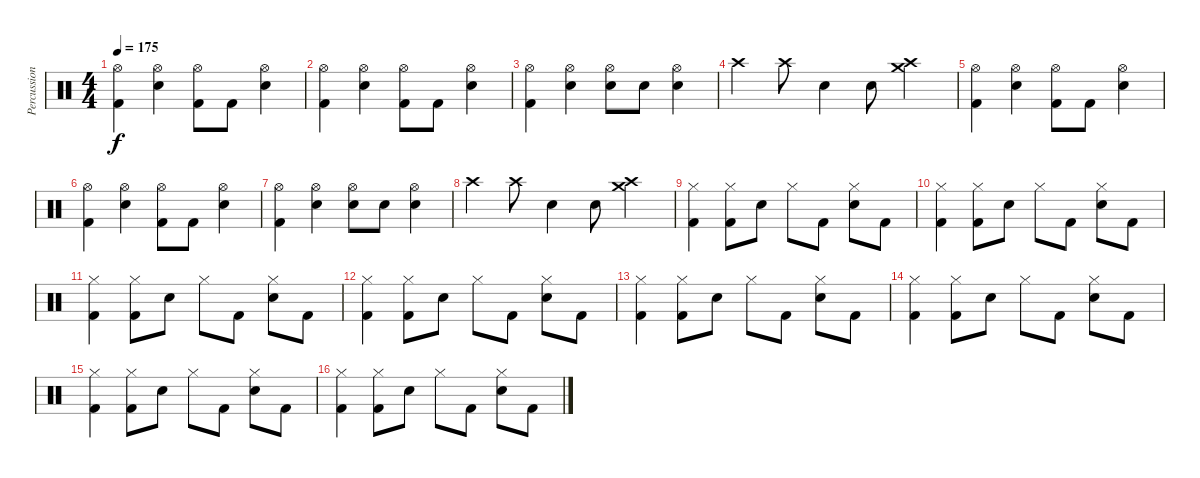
\track ("Percussion" "Percussion") {instrument percussion}
\staff {score}
\articulation defaults
\ts (4 4)
\tempo 175
\clef neutral
\ks c
("Hi-Hat (open)" "Kick (hit) 2").4{dy f} ("Hi-Hat (open)" "Snare (hit) 2").4 ("Hi-Hat (open)" "Kick (hit) 2").8 "Kick (hit) 2".8 ("Hi-Hat (open)" "Snare (hit) 2").4 |
("Hi-Hat (open)" "Kick (hit) 2").4 ("Hi-Hat (open)" "Snare (hit) 2").4 ("Hi-Hat (open)" "Kick (hit) 2").8 "Kick (hit) 2".8 ("Hi-Hat (open)" "Snare (hit) 2").4 |
("Hi-Hat (open)" "Kick (hit) 2").4 ("Hi-Hat (open)" "Snare (hit) 2").4 ("Hi-Hat (open)" "Snare (hit) 2").8 "Snare (hit) 2".8 ("Hi-Hat (open)" "Snare (hit) 2").4 |
"Crash high (hit)".4 "Crash high (hit)".8 "Snare (hit) 2".4 "Snare (hit) 2".8 ("Crash high (hit)" "Crash medium (hit)").4 |
("Hi-Hat (open)" "Kick (hit) 2").4 ("Hi-Hat (open)" "Snare (hit) 2").4 ("Hi-Hat (open)" "Kick (hit) 2").8 "Kick (hit) 2".8 ("Hi-Hat (open)" "Snare (hit) 2").4 |
("Hi-Hat (open)" "Kick (hit) 2").4 ("Hi-Hat (open)" "Snare (hit) 2").4 ("Hi-Hat (open)" "Kick (hit) 2").8 "Kick (hit) 2".8 ("Hi-Hat (open)" "Snare (hit) 2").4 |
("Hi-Hat (open)" "Kick (hit) 2").4 ("Hi-Hat (open)" "Snare (hit) 2").4 ("Hi-Hat (open)" "Snare (hit) 2").8 "Snare (hit) 2".8 ("Hi-Hat (open)" "Snare (hit) 2").4 |
"Crash high (hit)".4 "Crash high (hit)".8 "Snare (hit) 2".4 "Snare (hit) 2".8 ("Crash high (hit)" "Crash medium (hit)").4 |
("Hi-Hat (closed)" "Kick (hit) 2").4 ("Hi-Hat (closed)" "Kick (hit) 2").8 "Snare (hit) 2".8 "Hi-Hat (closed)".8 "Kick (hit) 2".8 ("Hi-Hat (closed)" "Snare (hit) 2").8 "Kick (hit) 2".8 |
("Hi-Hat (closed)" "Kick (hit) 2").4 ("Hi-Hat (closed)" "Kick (hit) 2").8 "Snare (hit) 2".8 "Hi-Hat (closed)".8 "Kick (hit) 2".8 ("Hi-Hat (closed)" "Snare (hit) 2").8 "Kick (hit) 2".8 |
("Hi-Hat (closed)" "Kick (hit) 2").4 ("Hi-Hat (closed)" "Kick (hit) 2").8 "Snare (hit) 2".8 "Hi-Hat (closed)".8 "Kick (hit) 2".8 ("Hi-Hat (closed)" "Snare (hit) 2").8 "Kick (hit) 2".8 |
("Hi-Hat (closed)" "Kick (hit) 2").4 ("Hi-Hat (closed)" "Kick (hit) 2").8 "Snare (hit) 2".8 "Hi-Hat (closed)".8 "Kick (hit) 2".8 ("Hi-Hat (closed)" "Snare (hit) 2").8 "Kick (hit) 2".8 |
("Hi-Hat (closed)" "Kick (hit) 2").4 ("Hi-Hat (closed)" "Kick (hit) 2").8 "Snare (hit) 2".8 "Hi-Hat (closed)".8 "Kick (hit) 2".8 ("Hi-Hat (closed)" "Snare (hit) 2").8 "Kick (hit) 2".8 |
("Hi-Hat (closed)" "Kick (hit) 2").4 ("Hi-Hat (closed)" "Kick (hit) 2").8 "Snare (hit) 2".8 "Hi-Hat (closed)".8 "Kick (hit) 2".8 ("Hi-Hat (closed)" "Snare (hit) 2").8 "Kick (hit) 2".8 |
("Hi-Hat (closed)" "Kick (hit) 2").4 ("Hi-Hat (closed)" "Kick (hit) 2").8 "Snare (hit) 2".8 "Hi-Hat (closed)".8 "Kick (hit) 2".8 ("Hi-Hat (closed)" "Snare (hit) 2").8 "Kick (hit) 2".8 |
("Hi-Hat (closed)" "Kick (hit) 2").4 ("Hi-Hat (closed)" "Kick (hit) 2").8 "Snare (hit) 2".8 "Hi-Hat (closed)".8 "Kick (hit) 2".8 ("Hi-Hat (closed)" "Snare (hit) 2").8 "Kick (hit) 2".8
